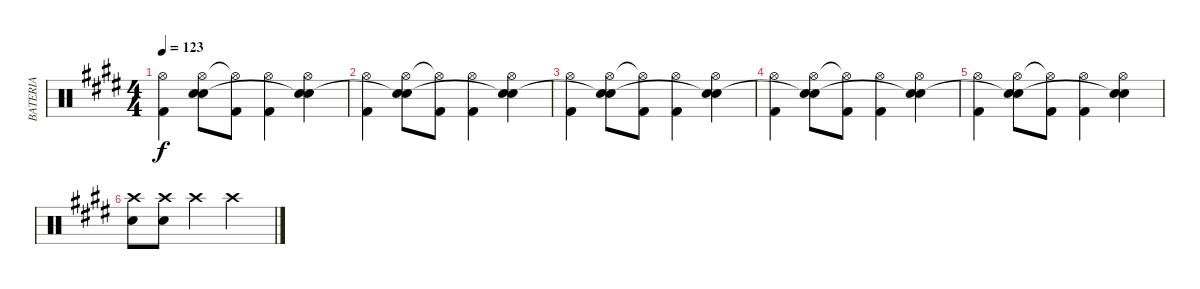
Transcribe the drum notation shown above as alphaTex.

\track ("BATERIA" "BATERIA") {instrument percussion}
\staff {score}
\articulation defaults
\ts (4 4)
\tempo 123
\clef neutral
\ks c#minor
("Hi-Hat (open)" "Kick (hit) 2").4{dy f} ("Hi-Hat (open)" "Snare (hit) 2" "Snare (hit)"{t}).8 ("Hi-Hat (open)"{t} "Kick (hit) 2").8 ("Hi-Hat (open)" "Kick (hit) 2").4 ("Hi-Hat (open)" "Snare (hit) 2" "Snare (hit)"{t}).4 |
("Hi-Hat (open)" "Kick (hit) 2").4 ("Hi-Hat (open)" "Snare (hit) 2" "Snare (hit)"{t}).8 ("Hi-Hat (open)"{t} "Kick (hit) 2").8 ("Hi-Hat (open)" "Kick (hit) 2").4 ("Hi-Hat (open)" "Snare (hit) 2" "Snare (hit)"{t}).4 |
("Hi-Hat (open)" "Kick (hit) 2").4 ("Hi-Hat (open)" "Snare (hit) 2" "Snare (hit)"{t}).8 ("Hi-Hat (open)"{t} "Kick (hit) 2").8 ("Hi-Hat (open)" "Kick (hit) 2").4 ("Hi-Hat (open)" "Snare (hit) 2" "Snare (hit)"{t}).4 |
("Hi-Hat (open)" "Kick (hit) 2").4 ("Hi-Hat (open)" "Snare (hit) 2" "Snare (hit)"{t}).8 ("Hi-Hat (open)"{t} "Kick (hit) 2").8 ("Hi-Hat (open)" "Kick (hit) 2").4 ("Hi-Hat (open)" "Snare (hit) 2" "Snare (hit)"{t}).4 |
("Hi-Hat (open)" "Kick (hit) 2").4 ("Hi-Hat (open)" "Snare (hit) 2" "Snare (hit)"{t}).8 ("Hi-Hat (open)"{t} "Kick (hit) 2").8 ("Hi-Hat (open)" "Kick (hit) 2").4 ("Hi-Hat (open)" "Snare (hit) 2" "Snare (hit)"{t}).4 |
("Crash high (hit)" "Snare (hit) 2").8 ("Crash high (hit)" "Snare (hit) 2").8 "Crash high (hit)".4 "Crash high (hit)".2
